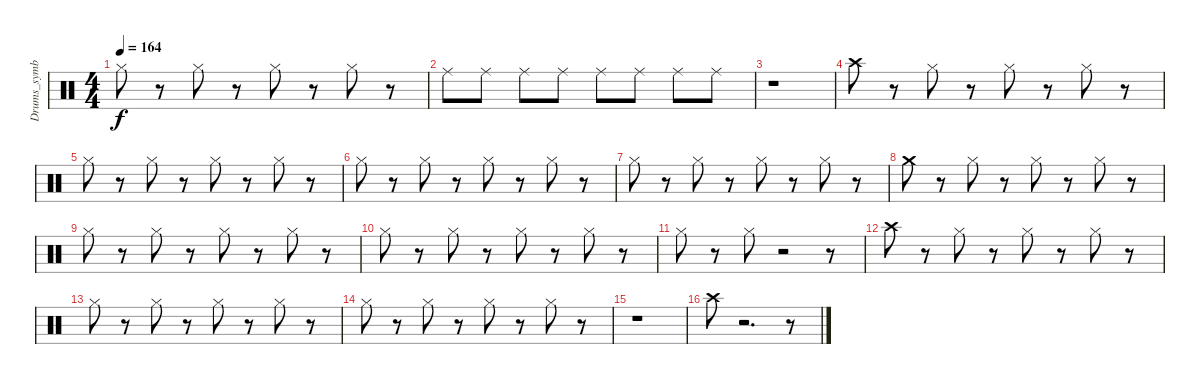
\track ("Drums_symbal" "Drums_symb") {instrument percussion}
\staff {score}
\articulation defaults
\ts (4 4)
\tempo 164
\clef neutral
\ks c "Hi-Hat (closed)".8{dy f}
r.8 "Hi-Hat (closed)".8 r.8 "Hi-Hat (closed)".8 r.8 "Hi-Hat (closed)".8 r.8 |
"Ride (middle)".8 "Ride (middle)".8 "Ride (middle)".8 "Ride (middle)".8 "Ride (middle)".8 "Ride (middle)".8 "Ride (middle)".8 "Ride (middle)".8 |
r.1 |
"Crash high (hit)".8 r.8 "Hi-Hat (closed)".8 r.8 "Hi-Hat (closed)".8 r.8 "Hi-Hat (closed)".8 r.8 |
"Hi-Hat (closed)".8 r.8 "Hi-Hat (closed)".8 r.8 "Hi-Hat (closed)".8 r.8 "Hi-Hat (closed)".8 r.8 |
"Hi-Hat (closed)".8 r.8 "Hi-Hat (closed)".8 r.8 "Hi-Hat (closed)".8 r.8 "Hi-Hat (closed)".8 r.8 |
"Hi-Hat (closed)".8 r.8 "Hi-Hat (closed)".8 r.8 "Hi-Hat (closed)".8 r.8 "Hi-Hat (closed)".8 r.8 |
"Crash medium (hit)".8 r.8 "Hi-Hat (closed)".8 r.8 "Hi-Hat (closed)".8 r.8 "Hi-Hat (closed)".8 r.8 |
"Hi-Hat (closed)".8 r.8 "Hi-Hat (closed)".8 r.8 "Hi-Hat (closed)".8 r.8 "Hi-Hat (closed)".8 r.8 |
"Hi-Hat (closed)".8 r.8 "Hi-Hat (closed)".8 r.8 "Hi-Hat (closed)".8 r.8 "Hi-Hat (closed)".8 r.8 |
"Hi-Hat (closed)".8 r.8 "Hi-Hat (closed)".8 r.2 r.8 |
"Crash high (hit)".8 r.8 "Hi-Hat (closed)".8 r.8 "Hi-Hat (closed)".8 r.8 "Hi-Hat (closed)".8 r.8 |
"Hi-Hat (closed)".8 r.8 "Hi-Hat (closed)".8 r.8 "Hi-Hat (closed)".8 r.8 "Hi-Hat (closed)".8 r.8 |
"Hi-Hat (closed)".8 r.8 "Hi-Hat (closed)".8 r.8 "Hi-Hat (closed)".8 r.8 "Hi-Hat (closed)".8 r.8 |
r.1 |
"Crash high (hit)".8 r.2{d} r.8
